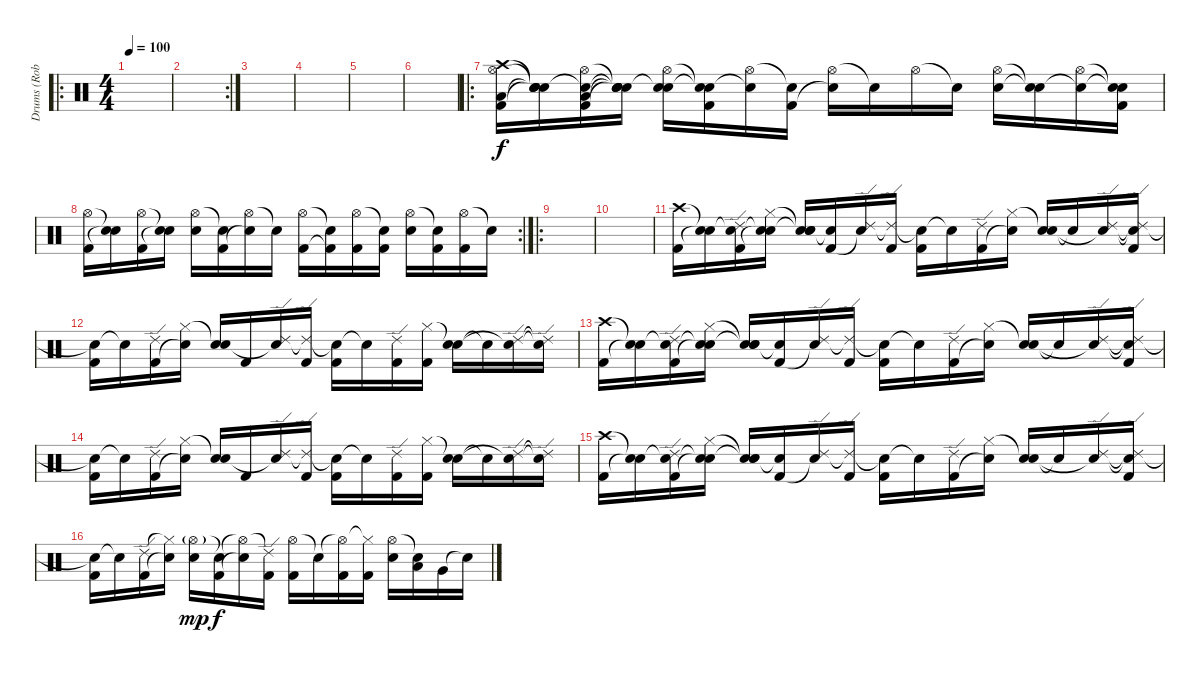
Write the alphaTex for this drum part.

\track ("Drums (Rob Bourdon)" "Drums (Rob") {instrument percussion}
\staff {score}
\articulation defaults
\ro
\ts (4 4)
\tempo 100
\clef neutral
\ks c
|
\rc 2
|
|
|
|
|
\ro
("Crash high (hit)" "Hi-Hat (open)" "Low Tom (hit)" "Kick (hit) 2").16 ("Snare (hit)"{t} "Snare (hit)"{t} "Snare (hit)"{t} "Snare (hit)"{t}).16 ("Snare (hit)"{t} "Hi-Hat (open)" "Low Tom (hit)" "Kick (hit) 2").16 ("Snare (hit)"{t} "Snare (hit)"{t} "Snare (hit)"{t} "Snare (hit)"{t}).16 ("Snare (hit)"{t} "Hi-Hat (open)" "Electric Snare (hit)").16 ("Snare (hit)"{t} "Snare (hit)"{t} "Kick (hit) 2").16 ("Hi-Hat (open)" "Snare (hit)"{t}).16 ("Snare (hit)"{t} "Kick (hit) 2").16 ("Hi-Hat (open)" "Snare (hit)"{t}).16 "Snare (hit)"{t}.16 "Hi-Hat (open)".16 "Snare (hit)"{t}.16 ("Hi-Hat (open)" "Electric Snare (hit)").16 ("Snare (hit)"{t} "Snare (hit)"{t}).16 ("Hi-Hat (open)" "Snare (hit)"{t}).16 ("Snare (hit)"{t} "Snare (hit)"{t} "Kick (hit) 2").16 |
\rc 2
("Hi-Hat (open)" "Kick (hit) 2").16 ("Snare (hit)"{t} "Snare (hit)"{t}).16 ("Hi-Hat (open)" "Kick (hit) 2").16 ("Snare (hit)"{t} "Snare (hit)"{t}).16 ("Hi-Hat (open)" "Electric Snare (hit)").16 ("Snare (hit)"{t} "Kick (hit) 2").16 ("Hi-Hat (open)" "Snare (hit)"{t}).16 "Snare (hit)"{t}.16 ("Hi-Hat (open)" "Kick (hit) 2").16 ("Snare (hit)"{t} "Kick (hit) 2"{t}).16 ("Hi-Hat (open)" "Kick (hit) 2").16 ("Snare (hit)"{t} "Kick (hit) 2").16 ("Hi-Hat (open)" "Electric Snare (hit)").16 ("Snare (hit)"{t} "Kick (hit) 2").16 ("Hi-Hat (open)" "Kick (hit) 2").16 "Snare (hit)"{t}.16 |
\ro
|
|
("Crash high (hit)" "Kick (hit) 2").16 ("Snare (hit)"{t} "Snare (hit)"{t}).16 ("Snare (hit)"{t} "Ride (edge) 2" "Kick (hit) 2").16 ("Snare (hit)"{t} "Hi-Hat (closed)" "Snare (hit)"{t}).16 ("Snare (hit)"{t} "Snare (hit)"{t} "Electric Snare (hit)").16 ("Snare (hit)"{t} "Kick (hit) 2").16 ("Ride (edge) 2" "Snare (hit)"{t}).16 ("Ride (edge) 2"{t} "Kick (hit) 2").16 ("Snare (hit)"{t} "Kick (hit) 2").16 "Snare (hit)"{t}.16 ("Ride (edge) 2" "Kick (hit) 2").16 ("Hi-Hat (closed)" "Snare (hit)"{t}).16 ("Snare (hit)"{t} "Electric Snare (hit)").16 "Snare (hit)"{t}.16 ("Ride (edge) 2" "Snare (hit)"{t}).16 ("Ride (edge) 2"{t} "Snare (hit)"{t} "Kick (hit) 2").16 |
("Snare (hit)"{t} "Kick (hit) 2").16 "Snare (hit)"{t}.16 ("Ride (edge) 2" "Kick (hit) 2").16 ("Hi-Hat (closed)" "Snare (hit)"{t}).16 ("Snare (hit)"{t} "Electric Snare (hit)").16 "Kick (hit) 2".16 ("Ride (edge) 2" "Snare (hit)"{t}).16 ("Ride (edge) 2"{t} "Kick (hit) 2").16 ("Snare (hit)"{t} "Kick (hit) 2").16 "Snare (hit)"{t}.16 ("Ride (edge) 2" "Kick (hit) 2").16 ("Hi-Hat (closed)" "Kick (hit) 2").16 ("Snare (hit)"{t} "Electric Snare (hit)").16 "Snare (hit)"{t}.16 ("Ride (edge) 2" "Snare (hit)"{t}).16 ("Ride (edge) 2"{t} "Snare (hit)"{t}).16 |
("Crash high (hit)" "Kick (hit) 2").16 ("Snare (hit)"{t} "Snare (hit)"{t}).16 ("Snare (hit)"{t} "Ride (edge) 2" "Kick (hit) 2").16 ("Snare (hit)"{t} "Hi-Hat (closed)" "Snare (hit)"{t}).16 ("Snare (hit)"{t} "Snare (hit)"{t} "Electric Snare (hit)").16 ("Snare (hit)"{t} "Kick (hit) 2").16 ("Ride (edge) 2" "Snare (hit)"{t}).16 ("Ride (edge) 2"{t} "Kick (hit) 2").16 ("Snare (hit)"{t} "Kick (hit) 2").16 "Snare (hit)"{t}.16 ("Ride (edge) 2" "Kick (hit) 2").16 ("Hi-Hat (closed)" "Snare (hit)"{t}).16 ("Snare (hit)"{t} "Electric Snare (hit)").16 "Snare (hit)"{t}.16 ("Ride (edge) 2" "Snare (hit)"{t}).16 ("Ride (edge) 2"{t} "Snare (hit)"{t} "Kick (hit) 2").16 |
("Snare (hit)"{t} "Kick (hit) 2").16 "Snare (hit)"{t}.16 ("Ride (edge) 2" "Kick (hit) 2").16 ("Hi-Hat (closed)" "Snare (hit)"{t}).16 ("Snare (hit)"{t} "Electric Snare (hit)").16 "Kick (hit) 2".16 ("Ride (edge) 2" "Snare (hit)"{t}).16 ("Ride (edge) 2"{t} "Kick (hit) 2").16 ("Snare (hit)"{t} "Kick (hit) 2").16 "Snare (hit)"{t}.16 ("Ride (edge) 2" "Kick (hit) 2").16 ("Hi-Hat (closed)" "Kick (hit) 2").16 ("Snare (hit)"{t} "Electric Snare (hit)").16 "Snare (hit)"{t}.16 ("Ride (edge) 2" "Snare (hit)"{t}).16 ("Ride (edge) 2"{t} "Snare (hit)"{t}).16 |
("Crash high (hit)" "Kick (hit) 2").16 ("Snare (hit)"{t} "Snare (hit)"{t}).16 ("Snare (hit)"{t} "Ride (edge) 2" "Kick (hit) 2").16 ("Snare (hit)"{t} "Hi-Hat (closed)" "Snare (hit)"{t}).16 ("Snare (hit)"{t} "Snare (hit)"{t} "Electric Snare (hit)").16 ("Snare (hit)"{t} "Kick (hit) 2").16 ("Ride (edge) 2" "Snare (hit)"{t}).16 ("Ride (edge) 2"{t} "Kick (hit) 2").16 ("Snare (hit)"{t} "Kick (hit) 2").16 "Snare (hit)"{t}.16 ("Ride (edge) 2" "Kick (hit) 2").16 ("Hi-Hat (closed)" "Snare (hit)"{t}).16 ("Snare (hit)"{t} "Electric Snare (hit)").16 "Snare (hit)"{t}.16 ("Ride (edge) 2" "Snare (hit)"{t}).16 ("Ride (edge) 2"{t} "Snare (hit)"{t} "Kick (hit) 2").16 |
("Snare (hit)"{t} "Kick (hit) 2").16 "Snare (hit)"{t}.16 ("Ride (edge) 2" "Kick (hit) 2").16 ("Hi-Hat (closed)"{t} "Snare (hit)"{t}).16 ("Hi-Hat (open)"{g} "Electric Snare (hit)").16{dy mp} ("Snare (hit)"{t} "Kick (hit) 2").16{dy f} ("Hi-Hat (open)"{t} "Snare (hit)"{t}).16 ("Ride (edge) 2"{t} "Kick (hit) 2").16 ("Hi-Hat (open)" "Kick (hit) 2").16 "Snare (hit)"{t}.16 ("Hi-Hat (open)"{t} "Kick (hit) 2").16 ("Hi-Hat (closed)"{t} "Kick (hit) 2").16 ("Hi-Hat (open)" "Electric Snare (hit)").16 ("Snare (hit)"{t} "Low Tom (hit)").16 "Very Low Tom (hit)".16 "Snare (hit)"{t}.16
